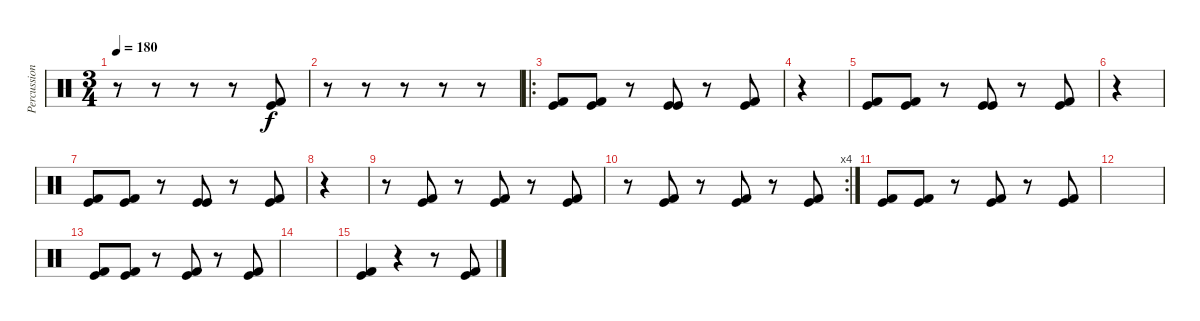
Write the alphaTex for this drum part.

\track ("Percussion" "Percussion") {instrument percussion}
\staff {score}
\articulation defaults
\ts (3 4)
\tempo 180
\clef neutral
\ks c
r.8{dy f} r.8 r.8 r.8 ("Kick (hit) 2" "Kick (hit)").8 |
r.8 r.8 r.8 r.8 r.8 |
\ro
("Kick (hit) 2" "Kick (hit)").8 ("Kick (hit) 2" "Kick (hit)").8 r.8 ("Kick (hit)" "Kick (hit)").8 r.8 ("Kick (hit) 2" "Kick (hit)").8 |
r.4 |
("Kick (hit) 2" "Kick (hit)").8 ("Kick (hit) 2" "Kick (hit)").8 r.8 ("Kick (hit)" "Kick (hit)").8 r.8 ("Kick (hit) 2" "Kick (hit)").8 |
r.4 |
("Kick (hit) 2" "Kick (hit)").8 ("Kick (hit) 2" "Kick (hit)").8 r.8 ("Kick (hit)" "Kick (hit)").8 r.8 ("Kick (hit) 2" "Kick (hit)").8 |
r.4 |
r.8 ("Kick (hit) 2" "Kick (hit)").8 r.8 ("Kick (hit) 2" "Kick (hit)").8 r.8 ("Kick (hit) 2" "Kick (hit)").8 |
\rc 4
r.8 ("Kick (hit) 2" "Kick (hit)").8 r.8 ("Kick (hit) 2" "Kick (hit)").8 r.8 ("Kick (hit) 2" "Kick (hit)").8 |
("Kick (hit) 2" "Kick (hit)").8 ("Kick (hit) 2" "Kick (hit)").8 r.8 ("Kick (hit) 2" "Kick (hit)").8 r.8 ("Kick (hit) 2" "Kick (hit)").8 |
|
("Kick (hit) 2" "Kick (hit)").8 ("Kick (hit) 2" "Kick (hit)").8 r.8 ("Kick (hit) 2" "Kick (hit)").8 r.8 ("Kick (hit) 2" "Kick (hit)").8 |
|
("Kick (hit) 2" "Kick (hit)").4 r.4 r.8 ("Kick (hit) 2" "Kick (hit)").8
